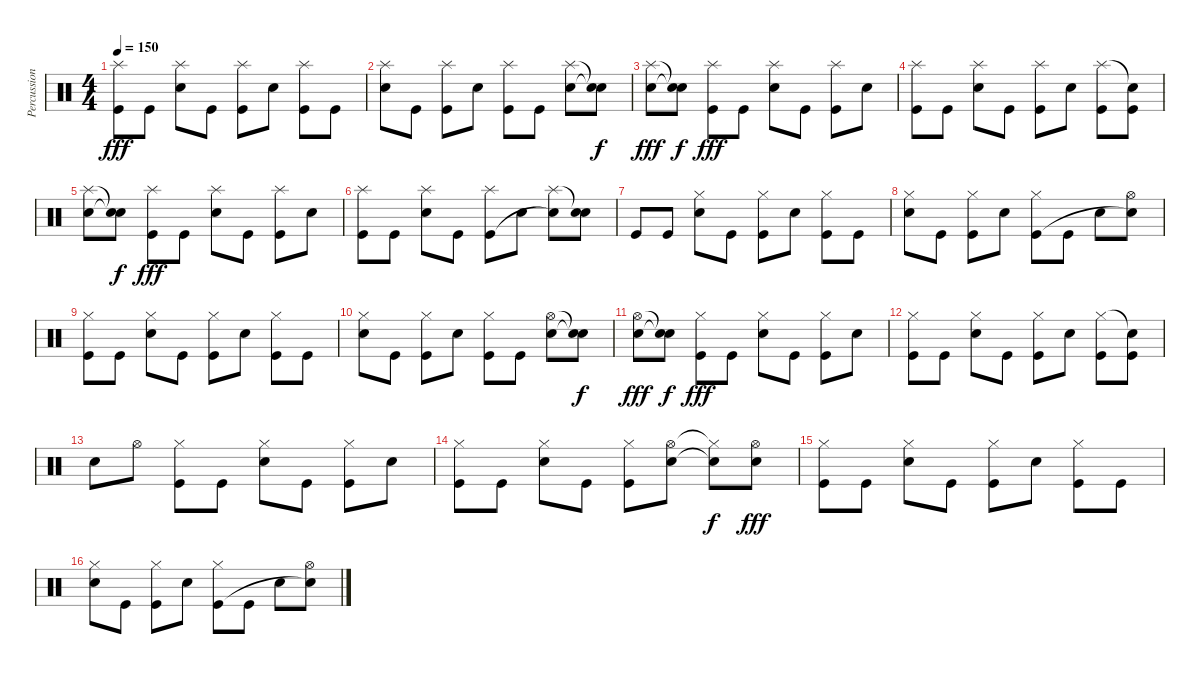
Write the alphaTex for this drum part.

\track ("Percussions" "Percussion") {instrument percussion}
\staff {score}
\articulation defaults
\ts (4 4)
\tempo 150
\clef neutral
\ks c
("Splash (hit)" "Kick (hit)").8{dy fff} "Kick (hit)".8 ("Splash (hit)" "Electric Snare (hit)").8 "Kick (hit)".8 ("Splash (hit)" "Kick (hit)").8 "Electric Snare (hit)".8 ("Splash (hit)" "Kick (hit)").8 "Kick (hit)".8 |
("Splash (hit)" "Electric Snare (hit)").8 "Kick (hit)".8 ("Splash (hit)" "Kick (hit)").8 "Electric Snare (hit)".8 ("Splash (hit)" "Kick (hit)").8 "Kick (hit)".8 ("Splash (hit)" "Electric Snare (hit)").8 ("Snare (hit)"{t} "Snare (hit)"{t}).8{dy f} |
("Splash (hit)" "Electric Snare (hit)").8{dy fff} ("Snare (hit)"{t} "Snare (hit)"{t}).8{dy f} ("Splash (hit)" "Kick (hit)").8{dy fff} "Kick (hit)".8 ("Splash (hit)" "Electric Snare (hit)").8 "Kick (hit)".8 ("Splash (hit)" "Kick (hit)").8 "Electric Snare (hit)".8 |
("Splash (hit)" "Kick (hit)").8 "Kick (hit)".8 ("Splash (hit)" "Electric Snare (hit)").8 "Kick (hit)".8 ("Splash (hit)" "Kick (hit)").8 "Electric Snare (hit)".8 ("Splash (hit)" "Kick (hit)").8 ("Snare (hit)"{t} "Kick (hit)").8 |
("Splash (hit)" "Electric Snare (hit)").8 ("Snare (hit)"{t} "Snare (hit)"{t}).8{dy f} ("Splash (hit)" "Kick (hit)").8{dy fff} "Kick (hit)".8 ("Splash (hit)" "Electric Snare (hit)").8 "Kick (hit)".8 ("Splash (hit)" "Kick (hit)").8 "Electric Snare (hit)".8 |
("Splash (hit)" "Kick (hit)").8 "Kick (hit)".8 ("Splash (hit)" "Electric Snare (hit)").8 "Kick (hit)".8 ("Splash (hit)" "Kick (hit)").8 "Electric Snare (hit)".8 ("Splash (hit)" "Snare (hit)"{t}).8 ("Snare (hit)"{t} "Electric Snare (hit)").8 |
"Kick (hit)".8 "Kick (hit)".8 ("Hi-Hat (closed)" "Electric Snare (hit)").8 "Kick (hit)".8 ("Hi-Hat (closed)" "Kick (hit)").8 "Electric Snare (hit)".8 ("Hi-Hat (closed)" "Kick (hit)").8 "Kick (hit)".8 |
("Hi-Hat (closed)" "Electric Snare (hit)").8 "Kick (hit)".8 ("Hi-Hat (closed)" "Kick (hit)").8 "Electric Snare (hit)".8 ("Hi-Hat (closed)" "Kick (hit)").8 "Kick (hit)".8 "Electric Snare (hit)".8 ("Hi-Hat (open)" "Snare (hit)"{t}).8 |
("Hi-Hat (closed)" "Kick (hit)").8 "Kick (hit)".8 ("Hi-Hat (closed)" "Electric Snare (hit)").8 "Kick (hit)".8 ("Hi-Hat (closed)" "Kick (hit)").8 "Electric Snare (hit)".8 ("Hi-Hat (closed)" "Kick (hit)").8 "Kick (hit)".8 |
("Hi-Hat (closed)" "Electric Snare (hit)").8 "Kick (hit)".8 ("Hi-Hat (closed)" "Kick (hit)").8 "Electric Snare (hit)".8 ("Hi-Hat (closed)" "Kick (hit)").8 "Kick (hit)".8 ("Hi-Hat (open)" "Electric Snare (hit)").8 ("Snare (hit)"{t} "Snare (hit)"{t}).8{dy f} |
("Hi-Hat (open)" "Electric Snare (hit)").8{dy fff} ("Snare (hit)"{t} "Snare (hit)"{t}).8{dy f} ("Hi-Hat (closed)" "Kick (hit)").8{dy fff} "Kick (hit)".8 ("Hi-Hat (closed)" "Electric Snare (hit)").8 "Kick (hit)".8 ("Hi-Hat (closed)" "Kick (hit)").8 "Electric Snare (hit)".8 |
("Hi-Hat (closed)" "Kick (hit)").8 "Kick (hit)".8 ("Hi-Hat (closed)" "Electric Snare (hit)").8 "Kick (hit)".8 ("Hi-Hat (closed)" "Kick (hit)").8 "Electric Snare (hit)".8 ("Hi-Hat (closed)" "Kick (hit)").8 ("Snare (hit)"{t} "Kick (hit)").8 |
"Electric Snare (hit)".8 "Hi-Hat (open)".8 ("Hi-Hat (closed)" "Kick (hit)").8 "Kick (hit)".8 ("Hi-Hat (closed)" "Electric Snare (hit)").8 "Kick (hit)".8 ("Hi-Hat (closed)" "Kick (hit)").8 "Electric Snare (hit)".8 |
("Hi-Hat (closed)" "Kick (hit)").8 "Kick (hit)".8 ("Hi-Hat (closed)" "Electric Snare (hit)").8 "Kick (hit)".8 ("Hi-Hat (closed)" "Kick (hit)").8 ("Hi-Hat (open)" "Electric Snare (hit)").8 ("Hi-Hat (closed)"{t} "Snare (hit)"{t}).8{dy f} ("Hi-Hat (open)" "Electric Snare (hit)").8{dy fff} |
("Hi-Hat (closed)" "Kick (hit)").8 "Kick (hit)".8 ("Hi-Hat (closed)" "Electric Snare (hit)").8 "Kick (hit)".8 ("Hi-Hat (closed)" "Kick (hit)").8 "Electric Snare (hit)".8 ("Hi-Hat (closed)" "Kick (hit)").8 "Kick (hit)".8 |
("Hi-Hat (closed)" "Electric Snare (hit)").8 "Kick (hit)".8 ("Hi-Hat (closed)" "Kick (hit)").8 "Electric Snare (hit)".8 ("Hi-Hat (closed)" "Kick (hit)").8 "Kick (hit)".8 "Electric Snare (hit)".8 ("Hi-Hat (open)" "Snare (hit)"{t}).8
